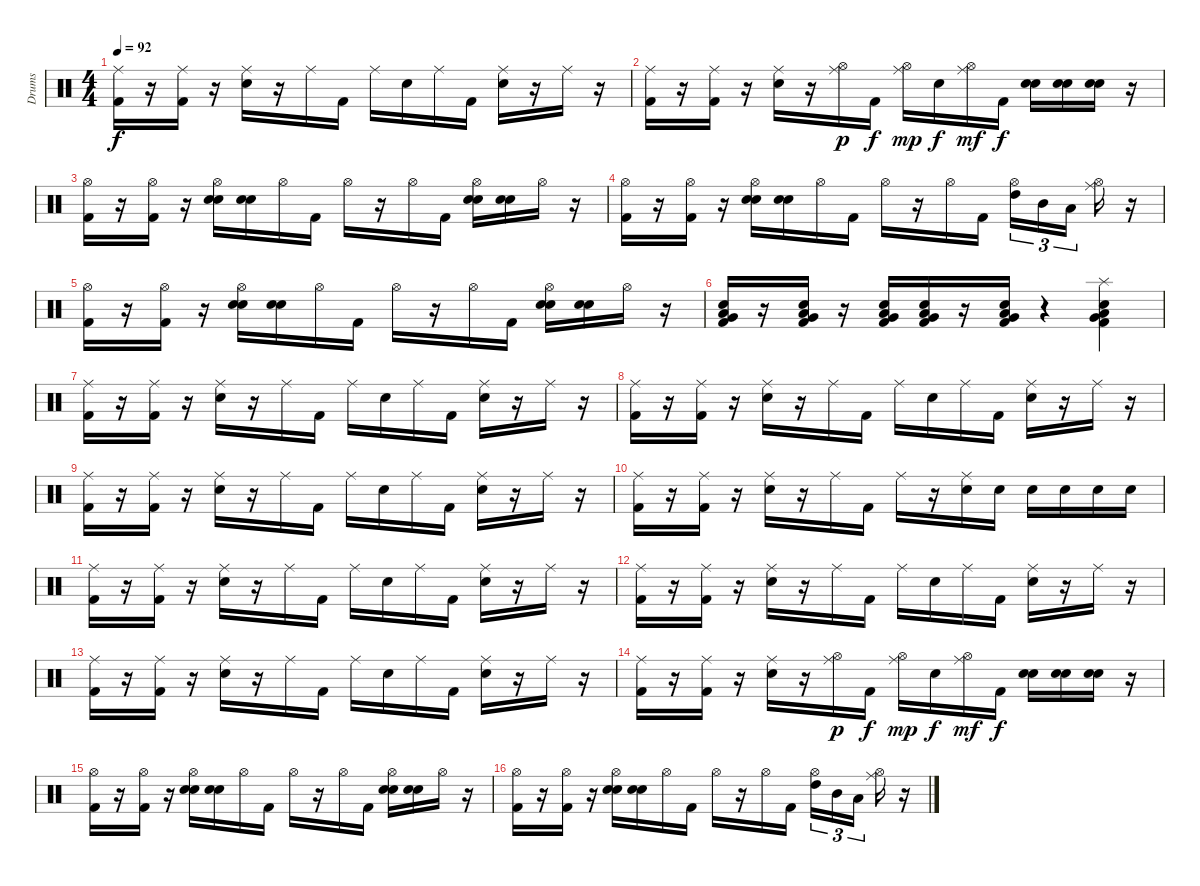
\track ("Drums" "Drums") {instrument percussion}
\staff {score}
\articulation defaults
\ts (4 4)
\tempo 92
\clef neutral
\ks c
("Ride (middle)" "Kick (hit) 2").16{dy f} r.16 ("Ride (middle)" "Kick (hit) 2").16 r.16 ("Ride (middle)" "Electric Snare (hit)").16 r.16 "Ride (middle)".16 "Kick (hit) 2".16 "Ride (middle)".16 "Electric Snare (hit)".16 "Ride (middle)".16 "Kick (hit) 2".16 ("Ride (middle)" "Electric Snare (hit)").16 r.16 "Ride (middle)".16 r.16 |
("Ride (middle)" "Kick (hit) 2").16 r.16 ("Ride (middle)" "Kick (hit) 2").16 r.16 ("Ride (middle)" "Electric Snare (hit)").16 r.16 ("Ride (middle)" "Hi-Hat (open)").16{dy p} "Kick (hit) 2".16{dy f} ("Ride (middle)" "Hi-Hat (open)").16{dy mp} "Electric Snare (hit)".16{dy f} ("Ride (middle)" "Hi-Hat (open)").16{dy mf} "Kick (hit) 2".16{dy f} ("Snare (hit) 2" "Electric Snare (hit)").16 ("Snare (hit) 2" "Electric Snare (hit)").16 ("Snare (hit) 2" "Electric Snare (hit)").16 r.16 |
("Hi-Hat (open)" "Kick (hit) 2").16 r.16 ("Hi-Hat (open)" "Kick (hit) 2").16 r.16 ("Hi-Hat (open)" "Snare (hit) 2" "Electric Snare (hit)").16 ("Snare (hit) 2" "Electric Snare (hit)").16 "Hi-Hat (open)".16 "Kick (hit) 2".16 "Hi-Hat (open)".16 r.16 "Hi-Hat (open)".16 "Kick (hit) 2".16 ("Hi-Hat (open)" "Snare (hit) 2" "Electric Snare (hit)").16 ("Snare (hit) 2" "Electric Snare (hit)").16 "Hi-Hat (open)".16 r.16 |
("Hi-Hat (open)" "Kick (hit) 2").16 r.16 ("Hi-Hat (open)" "Kick (hit) 2").16 r.16 ("Hi-Hat (open)" "Snare (hit) 2" "Electric Snare (hit)").16 ("Snare (hit) 2" "Electric Snare (hit)").16 "Hi-Hat (open)".16 "Kick (hit) 2".16 "Hi-Hat (open)".16 r.16 "Hi-Hat (open)".16 "Kick (hit) 2".16 ("Hi-Hat (open)" "High Tom (hit)").16{tu (3 2)} "Mid Tom (hit)".16{tu (3 2)} "Low Tom (hit)".16{tu (3 2)} ("Ride (middle)" "Hi-Hat (open)").16 r.16 |
("Hi-Hat (open)" "Kick (hit) 2").16 r.16 ("Hi-Hat (open)" "Kick (hit) 2").16 r.16 ("Hi-Hat (open)" "Snare (hit) 2" "Electric Snare (hit)").16 ("Snare (hit) 2" "Electric Snare (hit)").16 "Hi-Hat (open)".16 "Kick (hit) 2".16 "Hi-Hat (open)".16 r.16 "Hi-Hat (open)".16 "Kick (hit) 2".16 ("Hi-Hat (open)" "Snare (hit) 2" "Electric Snare (hit)").16 ("Snare (hit) 2" "Electric Snare (hit)").16 "Hi-Hat (open)".16 r.16 |
("Very Low Tom (hit)" "Snare (hit) 2" "Low Tom (hit)" "Kick (hit) 2").16 r.16 ("Very Low Tom (hit)" "Snare (hit) 2" "Low Tom (hit)" "Kick (hit) 2").16 r.16 ("Very Low Tom (hit)" "Snare (hit) 2" "Low Tom (hit)" "Kick (hit) 2").16 ("Very Low Tom (hit)" "Snare (hit) 2" "Low Tom (hit)" "Kick (hit) 2").16 r.16 ("Very Low Tom (hit)" "Snare (hit) 2" "Low Tom (hit)" "Kick (hit) 2").16 r.4 ("Splash (hit)" "Very Low Tom (hit)" "Snare (hit) 2" "Low Tom (hit)" "Kick (hit) 2").4 |
("Ride (middle)" "Kick (hit) 2").16 r.16 ("Ride (middle)" "Kick (hit) 2").16 r.16 ("Ride (middle)" "Electric Snare (hit)").16 r.16 "Ride (middle)".16 "Kick (hit) 2".16 "Ride (middle)".16 "Electric Snare (hit)".16 "Ride (middle)".16 "Kick (hit) 2".16 ("Ride (middle)" "Electric Snare (hit)").16 r.16 "Ride (middle)".16 r.16 |
("Ride (middle)" "Kick (hit) 2").16 r.16 ("Ride (middle)" "Kick (hit) 2").16 r.16 ("Ride (middle)" "Electric Snare (hit)").16 r.16 "Ride (middle)".16 "Kick (hit) 2".16 "Ride (middle)".16 "Electric Snare (hit)".16 "Ride (middle)".16 "Kick (hit) 2".16 ("Ride (middle)" "Electric Snare (hit)").16 r.16 "Ride (middle)".16 r.16 |
("Ride (middle)" "Kick (hit) 2").16 r.16 ("Ride (middle)" "Kick (hit) 2").16 r.16 ("Ride (middle)" "Electric Snare (hit)").16 r.16 "Ride (middle)".16 "Kick (hit) 2".16 "Ride (middle)".16 "Electric Snare (hit)".16 "Ride (middle)".16 "Kick (hit) 2".16 ("Ride (middle)" "Electric Snare (hit)").16 r.16 "Ride (middle)".16 r.16 |
("Ride (middle)" "Kick (hit) 2").16 r.16 ("Ride (middle)" "Kick (hit) 2").16 r.16 ("Ride (middle)" "Electric Snare (hit)").16 r.16 "Ride (middle)".16 "Kick (hit) 2".16 "Ride (middle)".16 r.16 ("Ride (middle)" "Electric Snare (hit)").16 "Electric Snare (hit)".16 "Electric Snare (hit)".16 "Electric Snare (hit)".16 "Electric Snare (hit)".16 "Electric Snare (hit)".16 |
("Ride (middle)" "Kick (hit) 2").16 r.16 ("Ride (middle)" "Kick (hit) 2").16 r.16 ("Ride (middle)" "Electric Snare (hit)").16 r.16 "Ride (middle)".16 "Kick (hit) 2".16 "Ride (middle)".16 "Electric Snare (hit)".16 "Ride (middle)".16 "Kick (hit) 2".16 ("Ride (middle)" "Electric Snare (hit)").16 r.16 "Ride (middle)".16 r.16 |
("Ride (middle)" "Kick (hit) 2").16 r.16 ("Ride (middle)" "Kick (hit) 2").16 r.16 ("Ride (middle)" "Electric Snare (hit)").16 r.16 "Ride (middle)".16 "Kick (hit) 2".16 "Ride (middle)".16 "Electric Snare (hit)".16 "Ride (middle)".16 "Kick (hit) 2".16 ("Ride (middle)" "Electric Snare (hit)").16 r.16 "Ride (middle)".16 r.16 |
("Ride (middle)" "Kick (hit) 2").16 r.16 ("Ride (middle)" "Kick (hit) 2").16 r.16 ("Ride (middle)" "Electric Snare (hit)").16 r.16 "Ride (middle)".16 "Kick (hit) 2".16 "Ride (middle)".16 "Electric Snare (hit)".16 "Ride (middle)".16 "Kick (hit) 2".16 ("Ride (middle)" "Electric Snare (hit)").16 r.16 "Ride (middle)".16 r.16 |
("Ride (middle)" "Kick (hit) 2").16 r.16 ("Ride (middle)" "Kick (hit) 2").16 r.16 ("Ride (middle)" "Electric Snare (hit)").16 r.16 ("Ride (middle)" "Hi-Hat (open)").16{dy p} "Kick (hit) 2".16{dy f} ("Ride (middle)" "Hi-Hat (open)").16{dy mp} "Electric Snare (hit)".16{dy f} ("Ride (middle)" "Hi-Hat (open)").16{dy mf} "Kick (hit) 2".16{dy f} ("Snare (hit) 2" "Electric Snare (hit)").16 ("Snare (hit) 2" "Electric Snare (hit)").16 ("Snare (hit) 2" "Electric Snare (hit)").16 r.16 |
("Hi-Hat (open)" "Kick (hit) 2").16 r.16 ("Hi-Hat (open)" "Kick (hit) 2").16 r.16 ("Hi-Hat (open)" "Snare (hit) 2" "Electric Snare (hit)").16 ("Snare (hit) 2" "Electric Snare (hit)").16 "Hi-Hat (open)".16 "Kick (hit) 2".16 "Hi-Hat (open)".16 r.16 "Hi-Hat (open)".16 "Kick (hit) 2".16 ("Hi-Hat (open)" "Snare (hit) 2" "Electric Snare (hit)").16 ("Snare (hit) 2" "Electric Snare (hit)").16 "Hi-Hat (open)".16 r.16 |
("Hi-Hat (open)" "Kick (hit) 2").16 r.16 ("Hi-Hat (open)" "Kick (hit) 2").16 r.16 ("Hi-Hat (open)" "Snare (hit) 2" "Electric Snare (hit)").16 ("Snare (hit) 2" "Electric Snare (hit)").16 "Hi-Hat (open)".16 "Kick (hit) 2".16 "Hi-Hat (open)".16 r.16 "Hi-Hat (open)".16 "Kick (hit) 2".16 ("Hi-Hat (open)" "High Tom (hit)").16{tu (3 2)} "Mid Tom (hit)".16{tu (3 2)} "Low Tom (hit)".16{tu (3 2)} ("Ride (middle)" "Hi-Hat (open)").16 r.16
